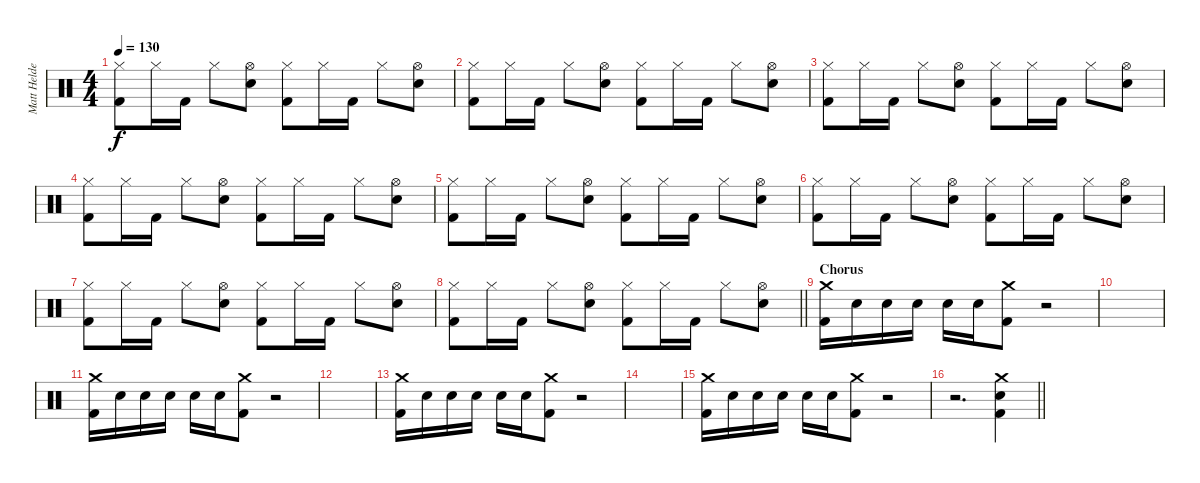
\track ("Matt Helders" "Matt Helde") {instrument percussion}
\staff {score}
\articulation defaults
\ts (4 4)
\tempo 130
\clef neutral
\ks c
("Hi-Hat (closed)" "Kick (hit) 2").8{dy f} "Hi-Hat (closed)".16 "Kick (hit) 2".16 "Hi-Hat (closed)".8 ("Hi-Hat (open)" "Snare (hit) 2").8 ("Hi-Hat (closed)" "Kick (hit) 2").8 "Hi-Hat (closed)".16 "Kick (hit) 2".16 "Hi-Hat (closed)".8 ("Hi-Hat (open)" "Snare (hit) 2").8 |
("Hi-Hat (closed)" "Kick (hit) 2").8 "Hi-Hat (closed)".16 "Kick (hit) 2".16 "Hi-Hat (closed)".8 ("Hi-Hat (open)" "Snare (hit) 2").8 ("Hi-Hat (closed)" "Kick (hit) 2").8 "Hi-Hat (closed)".16 "Kick (hit) 2".16 "Hi-Hat (closed)".8 ("Hi-Hat (open)" "Snare (hit) 2").8 |
("Hi-Hat (closed)" "Kick (hit) 2").8 "Hi-Hat (closed)".16 "Kick (hit) 2".16 "Hi-Hat (closed)".8 ("Hi-Hat (open)" "Snare (hit) 2").8 ("Hi-Hat (closed)" "Kick (hit) 2").8 "Hi-Hat (closed)".16 "Kick (hit) 2".16 "Hi-Hat (closed)".8 ("Hi-Hat (open)" "Snare (hit) 2").8 |
("Hi-Hat (closed)" "Kick (hit) 2").8 "Hi-Hat (closed)".16 "Kick (hit) 2".16 "Hi-Hat (closed)".8 ("Hi-Hat (open)" "Snare (hit) 2").8 ("Hi-Hat (closed)" "Kick (hit) 2").8 "Hi-Hat (closed)".16 "Kick (hit) 2".16 "Hi-Hat (closed)".8 ("Hi-Hat (open)" "Snare (hit) 2").8 |
("Hi-Hat (closed)" "Kick (hit) 2").8 "Hi-Hat (closed)".16 "Kick (hit) 2".16 "Hi-Hat (closed)".8 ("Hi-Hat (open)" "Snare (hit) 2").8 ("Hi-Hat (closed)" "Kick (hit) 2").8 "Hi-Hat (closed)".16 "Kick (hit) 2".16 "Hi-Hat (closed)".8 ("Hi-Hat (open)" "Snare (hit) 2").8 |
("Hi-Hat (closed)" "Kick (hit) 2").8 "Hi-Hat (closed)".16 "Kick (hit) 2".16 "Hi-Hat (closed)".8 ("Hi-Hat (open)" "Snare (hit) 2").8 ("Hi-Hat (closed)" "Kick (hit) 2").8 "Hi-Hat (closed)".16 "Kick (hit) 2".16 "Hi-Hat (closed)".8 ("Hi-Hat (open)" "Snare (hit) 2").8 |
("Hi-Hat (closed)" "Kick (hit) 2").8 "Hi-Hat (closed)".16 "Kick (hit) 2".16 "Hi-Hat (closed)".8 ("Hi-Hat (open)" "Snare (hit) 2").8 ("Hi-Hat (closed)" "Kick (hit) 2").8 "Hi-Hat (closed)".16 "Kick (hit) 2".16 "Hi-Hat (closed)".8 ("Hi-Hat (open)" "Snare (hit) 2").8 |
\barLineRight lightlight
("Hi-Hat (closed)" "Kick (hit) 2").8 "Hi-Hat (closed)".16 "Kick (hit) 2".16 "Hi-Hat (closed)".8 ("Hi-Hat (open)" "Snare (hit) 2").8 ("Hi-Hat (closed)" "Kick (hit) 2").8 "Hi-Hat (closed)".16 "Kick (hit) 2".16 "Hi-Hat (closed)".8 ("Hi-Hat (open)" "Snare (hit) 2").8 |
\section ("" "Chorus")
("Kick (hit) 2" "Crash medium (hit)").16 "Snare (hit) 2".16 "Snare (hit) 2".16 "Snare (hit) 2".16 "Snare (hit) 2".16 "Snare (hit) 2".16 ("Kick (hit) 2" "Crash medium (hit)").8 r.2 |
|
("Kick (hit) 2" "Crash medium (hit)").16 "Snare (hit) 2".16 "Snare (hit) 2".16 "Snare (hit) 2".16 "Snare (hit) 2".16 "Snare (hit) 2".16 ("Kick (hit) 2" "Crash medium (hit)").8 r.2 |
|
("Kick (hit) 2" "Crash medium (hit)").16 "Snare (hit) 2".16 "Snare (hit) 2".16 "Snare (hit) 2".16 "Snare (hit) 2".16 "Snare (hit) 2".16 ("Kick (hit) 2" "Crash medium (hit)").8 r.2 |
|
("Kick (hit) 2" "Crash medium (hit)").16 "Snare (hit) 2".16 "Snare (hit) 2".16 "Snare (hit) 2".16 "Snare (hit) 2".16 "Snare (hit) 2".16 ("Kick (hit) 2" "Crash medium (hit)").8 r.2 |
\barLineRight lightlight
r.2{d} ("Crash medium (hit)" "Snare (hit) 2" "Kick (hit) 2").4
